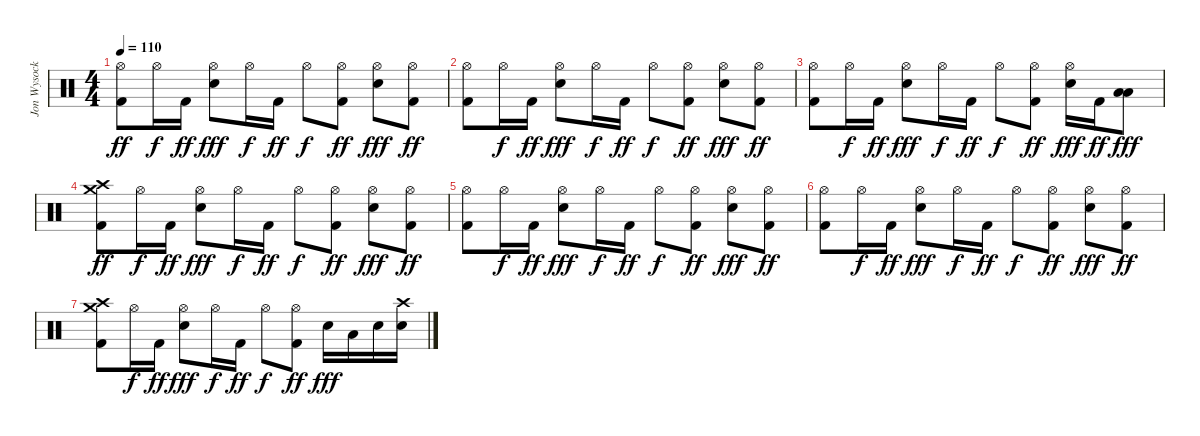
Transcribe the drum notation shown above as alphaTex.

\track ("Jon Wysocki" "Jon Wysock") {instrument percussion}
\staff {score}
\articulation defaults
\ts (4 4)
\tempo 110
\clef neutral
\ks c
("Hi-Hat (open)" "Kick (hit) 2").8{dy ff} "Hi-Hat (open)".16{dy f} "Kick (hit) 2".16{dy ff} ("Hi-Hat (open)" "Electric Snare (hit)").8{dy fff} "Hi-Hat (open)".16{dy f} "Kick (hit) 2".16{dy ff} "Hi-Hat (open)".8{dy f} ("Hi-Hat (open)" "Kick (hit) 2").8{dy ff} ("Hi-Hat (open)" "Electric Snare (hit)").8{dy fff} ("Hi-Hat (open)" "Kick (hit) 2").8{dy ff} |
("Hi-Hat (open)" "Kick (hit) 2").8 "Hi-Hat (open)".16{dy f} "Kick (hit) 2".16{dy ff} ("Hi-Hat (open)" "Electric Snare (hit)").8{dy fff} "Hi-Hat (open)".16{dy f} "Kick (hit) 2".16{dy ff} "Hi-Hat (open)".8{dy f} ("Hi-Hat (open)" "Kick (hit) 2").8{dy ff} ("Hi-Hat (open)" "Electric Snare (hit)").8{dy fff} ("Hi-Hat (open)" "Kick (hit) 2").8{dy ff} |
("Hi-Hat (open)" "Kick (hit) 2").8 "Hi-Hat (open)".16{dy f} "Kick (hit) 2".16{dy ff} ("Hi-Hat (open)" "Electric Snare (hit)").8{dy fff} "Hi-Hat (open)".16{dy f} "Kick (hit) 2".16{dy ff} "Hi-Hat (open)".8{dy f} ("Hi-Hat (open)" "Kick (hit) 2").8{dy ff} ("Hi-Hat (open)" "Electric Snare (hit)").16{dy fff} "Kick (hit) 2".16{dy ff} ("Low Tom (hit)" "Low Tom (hit)").8{dy fff} |
("Crash medium (hit)" "Crash high (hit)" "Kick (hit) 2").8{dy ff} "Hi-Hat (open)".16{dy f} "Kick (hit) 2".16{dy ff} ("Hi-Hat (open)" "Electric Snare (hit)").8{dy fff} "Hi-Hat (open)".16{dy f} "Kick (hit) 2".16{dy ff} "Hi-Hat (open)".8{dy f} ("Hi-Hat (open)" "Kick (hit) 2").8{dy ff} ("Hi-Hat (open)" "Electric Snare (hit)").8{dy fff} ("Hi-Hat (open)" "Kick (hit) 2").8{dy ff} |
("Hi-Hat (open)" "Kick (hit) 2").8 "Hi-Hat (open)".16{dy f} "Kick (hit) 2".16{dy ff} ("Hi-Hat (open)" "Electric Snare (hit)").8{dy fff} "Hi-Hat (open)".16{dy f} "Kick (hit) 2".16{dy ff} "Hi-Hat (open)".8{dy f} ("Hi-Hat (open)" "Kick (hit) 2").8{dy ff} ("Hi-Hat (open)" "Electric Snare (hit)").8{dy fff} ("Hi-Hat (open)" "Kick (hit) 2").8{dy ff} |
("Hi-Hat (open)" "Kick (hit) 2").8 "Hi-Hat (open)".16{dy f} "Kick (hit) 2".16{dy ff} ("Hi-Hat (open)" "Electric Snare (hit)").8{dy fff} "Hi-Hat (open)".16{dy f} "Kick (hit) 2".16{dy ff} "Hi-Hat (open)".8{dy f} ("Hi-Hat (open)" "Kick (hit) 2").8{dy ff} ("Hi-Hat (open)" "Electric Snare (hit)").8{dy fff} ("Hi-Hat (open)" "Kick (hit) 2").8{dy ff} |
("Crash medium (hit)" "Crash high (hit)" "Kick (hit) 2").8 "Hi-Hat (open)".16{dy f} "Kick (hit) 2".16{dy ff} ("Hi-Hat (open)" "Electric Snare (hit)").8{dy fff} "Hi-Hat (open)".16{dy f} "Kick (hit) 2".16{dy ff} "Hi-Hat (open)".8{dy f} ("Hi-Hat (open)" "Kick (hit) 2").8{dy ff} "Electric Snare (hit)".16{dy fff} "Low Tom (hit)".16 "Electric Snare (hit)".16 ("Crash high (hit)" "Electric Snare (hit)").16
